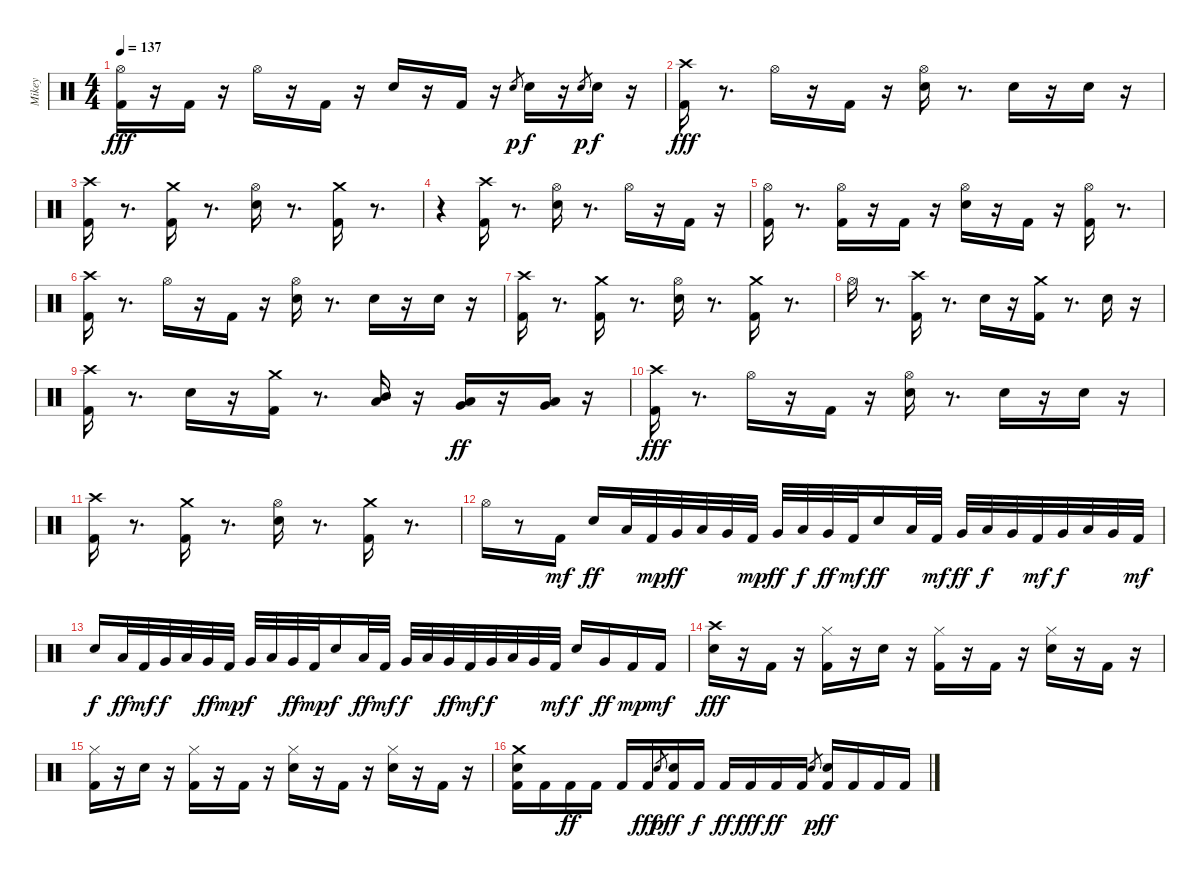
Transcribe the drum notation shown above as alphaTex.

\track ("Mikey" "Mikey") {instrument percussion}
\staff {score}
\articulation defaults
\ts (4 4)
\tempo 137
\clef neutral
\ks c
("Kick (hit) 2" "Hi-Hat (open)").16{dy fff} r.16 "Kick (hit) 2".16 r.16 "Hi-Hat (open)".16 r.16 "Kick (hit) 2".16 r.16 "Electric Snare (hit)".16 r.16 "Kick (hit) 2".16 r.16 "Electric Snare (hit)".8{gr dy p} "Electric Snare (hit)".16{dy f} r.16 "Electric Snare (hit)".8{gr dy p} "Electric Snare (hit)".16{dy f} r.16 |
("Crash high (hit)" "Kick (hit) 2").16{dy fff} r.8{d} "Hi-Hat (open)".16 r.16 "Kick (hit) 2".16 r.16 ("Hi-Hat (open)" "Electric Snare (hit)").16 r.8{d} "Electric Snare (hit)".16 r.16 "Electric Snare (hit)".16 r.16 |
("Crash high (hit)" "Kick (hit) 2").16 r.8{d} ("Crash medium (hit)" "Kick (hit) 2").16 r.8{d} ("Hi-Hat (open)" "Electric Snare (hit)").16 r.8{d} ("Crash medium (hit)" "Kick (hit) 2").16 r.8{d} |
r.4 ("Kick (hit) 2" "Crash high (hit)").16 r.8{d} ("Electric Snare (hit)" "Hi-Hat (open)").16 r.8{d} "Hi-Hat (open)".16 r.16 "Kick (hit) 2".16 r.16 |
("Hi-Hat (open)" "Kick (hit) 2").16 r.8{d} ("Kick (hit) 2" "Hi-Hat (open)").16 r.16 "Kick (hit) 2".16 r.16 ("Electric Snare (hit)" "Hi-Hat (open)").16 r.16 "Kick (hit) 2".16 r.16 ("Kick (hit) 2" "Hi-Hat (open)").16 r.8{d} |
("Kick (hit) 2" "Crash high (hit)").16 r.8{d} "Hi-Hat (open)".16 r.16 "Kick (hit) 2".16 r.16 ("Hi-Hat (open)" "Electric Snare (hit)").16 r.8{d} "Electric Snare (hit)".16 r.16 "Electric Snare (hit)".16 r.16 |
("Crash high (hit)" "Kick (hit) 2").16 r.8{d} ("Crash medium (hit)" "Kick (hit) 2").16 r.8{d} ("Hi-Hat (open)" "Electric Snare (hit)").16 r.8{d} ("Crash medium (hit)" "Kick (hit) 2").16 r.8{d} |
"Hi-Hat (open)".16 r.8{d} ("Kick (hit) 2" "Crash high (hit)").16 r.8{d} "Electric Snare (hit)".16 r.16 ("Crash medium (hit)" "Kick (hit) 2").16 r.8{d} "Electric Snare (hit)".16 r.16 |
("Kick (hit) 2" "Crash high (hit)").16 r.8{d} "Electric Snare (hit)".16 r.16 ("Crash medium (hit)" "Kick (hit) 2").16 r.8{d} ("Mid Tom (hit)" "Low Tom (hit)").16 r.16 ("Low Tom (hit)" "Very Low Tom (hit)").16{dy ff} r.16 ("Very Low Tom (hit)" "Low Floor Tom (hit)").16 r.16 |
("Kick (hit) 2" "Crash high (hit)").16{dy fff} r.8{d} "Hi-Hat (open)".16 r.16 "Kick (hit) 2".16 r.16 ("Hi-Hat (open)" "Electric Snare (hit)").16 r.8{d} "Electric Snare (hit)".16 r.16 "Electric Snare (hit)".16 r.16 |
("Crash high (hit)" "Kick (hit) 2").16 r.8{d} ("Crash medium (hit)" "Kick (hit) 2").16 r.8{d} ("Hi-Hat (open)" "Electric Snare (hit)").16 r.8{d} ("Crash medium (hit)" "Kick (hit) 2").16 r.8{d} |
"Hi-Hat (open)".16 r.8 "Kick (hit) 2".16{dy mf} "Electric Snare (hit)".16{dy ff} "Low Tom (hit)".32 "Kick (hit) 2".32{dy mp} "Very Low Tom (hit)".32{dy ff} "Low Floor Tom (hit)".32 "Very Low Tom (hit)".32 "Kick (hit) 2".32{dy mp} "Very Low Tom (hit)".32{dy ff} "Low Floor Tom (hit)".32{dy f} "Very Low Tom (hit)".32{dy ff} "Kick (hit) 2".32{dy mf} "Electric Snare (hit)".16{dy ff} "Low Tom (hit)".32 "Kick (hit) 2".32{dy mf} "Very Low Tom (hit)".32{dy ff} "Low Floor Tom (hit)".32{dy f} "Very Low Tom (hit)".32 "Kick (hit) 2".32{dy mf} "Very Low Tom (hit)".32{dy f} "Low Floor Tom (hit)".32 "Very Low Tom (hit)".32 "Kick (hit) 2".32{dy mf} |
"Electric Snare (hit)".16{dy f} "Low Tom (hit)".32{dy ff} "Kick (hit) 2".32{dy mf} "Very Low Tom (hit)".32{dy f} "Low Floor Tom (hit)".32 "Very Low Tom (hit)".32{dy ff} "Kick (hit) 2".32{dy mp} "Very Low Tom (hit)".32{dy f} "Low Floor Tom (hit)".32 "Very Low Tom (hit)".32{dy ff} "Kick (hit) 2".32{dy mp} "Electric Snare (hit)".16{dy f} "Low Tom (hit)".32{dy ff} "Kick (hit) 2".32{dy mf} "Very Low Tom (hit)".32{dy f} "Low Floor Tom (hit)".32 "Very Low Tom (hit)".32{dy ff} "Kick (hit) 2".32{dy mf} "Very Low Tom (hit)".32{dy f} "Low Floor Tom (hit)".32 "Very Low Tom (hit)".32 "Kick (hit) 2".32{dy mf} "Electric Snare (hit)".16{dy f} "Very Low Tom (hit)".16{dy ff} "Kick (hit) 2".16{dy mp} "Kick (hit) 2".16{dy mf} |
("Electric Snare (hit)" "Crash high (hit)").16{dy fff} r.16 "Kick (hit) 2".16 r.16 ("Hi-Hat (closed)" "Kick (hit) 2").16 r.16 "Electric Snare (hit)".16 r.16 ("Hi-Hat (closed)" "Kick (hit) 2").16 r.16 "Kick (hit) 2".16 r.16 ("Hi-Hat (closed)" "Electric Snare (hit)").16 r.16 "Kick (hit) 2".16 r.16 |
("Kick (hit) 2" "Hi-Hat (closed)").16 r.16 "Electric Snare (hit)".16 r.16 ("Hi-Hat (closed)" "Kick (hit) 2").16 r.16 "Kick (hit) 2".16 r.16 ("Electric Snare (hit)" "Hi-Hat (closed)").16 r.16 "Kick (hit) 2".16 r.16 ("Hi-Hat (closed)" "Electric Snare (hit)").16 r.16 "Kick (hit) 2".16 r.16 |
("Electric Snare (hit)" "Crash medium (hit)" "Kick (hit) 2").16 "Kick (hit) 2".16 "Kick (hit) 2".16{dy ff} "Kick (hit) 2".16 "Kick (hit) 2".16 "Kick (hit) 2".16{dy fff} "Electric Snare (hit)".8{gr dy p} ("Electric Snare (hit)" "Kick (hit) 2").16{dy ff} "Kick (hit) 2".16{dy f} "Kick (hit) 2".16{dy ff} "Kick (hit) 2".16{dy fff} "Kick (hit) 2".16{dy ff} "Kick (hit) 2".16 "Electric Snare (hit)".8{gr dy p} ("Electric Snare (hit)" "Kick (hit) 2").16{dy ff} "Kick (hit) 2".16 "Kick (hit) 2".16 "Kick (hit) 2".16
